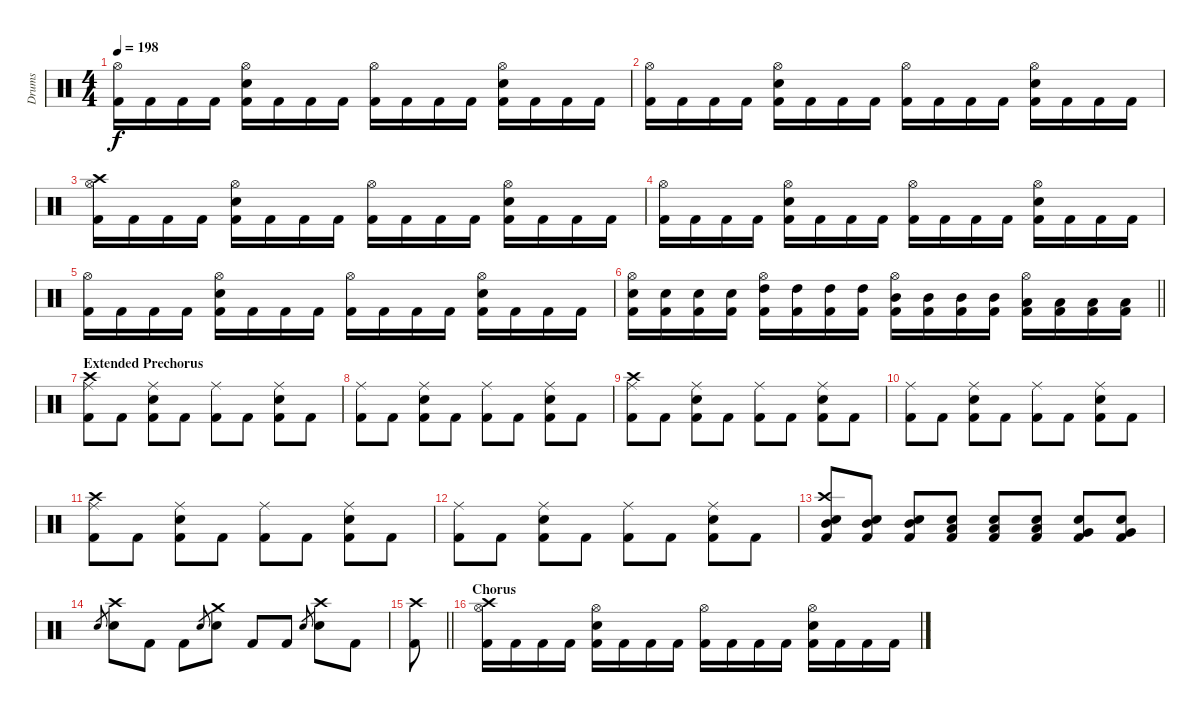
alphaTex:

\track ("Drums" "Drums") {instrument percussion}
\staff {score}
\articulation defaults
\ts (4 4)
\tempo 198
\clef neutral
\ks c
("Hi-Hat (open)" "Kick (hit) 2").16{dy f} "Kick (hit) 2".16 "Kick (hit) 2".16 "Kick (hit) 2".16 ("Hi-Hat (open)" "Snare (hit) 2" "Kick (hit) 2").16 "Kick (hit) 2".16 "Kick (hit) 2".16 "Kick (hit) 2".16 ("Hi-Hat (open)" "Kick (hit) 2").16 "Kick (hit) 2".16 "Kick (hit) 2".16 "Kick (hit) 2".16 ("Hi-Hat (open)" "Snare (hit) 2" "Kick (hit) 2").16 "Kick (hit) 2".16 "Kick (hit) 2".16 "Kick (hit) 2".16 |
("Hi-Hat (open)" "Kick (hit) 2").16 "Kick (hit) 2".16 "Kick (hit) 2".16 "Kick (hit) 2".16 ("Hi-Hat (open)" "Snare (hit) 2" "Kick (hit) 2").16 "Kick (hit) 2".16 "Kick (hit) 2".16 "Kick (hit) 2".16 ("Hi-Hat (open)" "Kick (hit) 2").16 "Kick (hit) 2".16 "Kick (hit) 2".16 "Kick (hit) 2".16 ("Hi-Hat (open)" "Snare (hit) 2" "Kick (hit) 2").16 "Kick (hit) 2".16 "Kick (hit) 2".16 "Kick (hit) 2".16 |
("Crash high (hit)" "Hi-Hat (open)" "Kick (hit) 2").16 "Kick (hit) 2".16 "Kick (hit) 2".16 "Kick (hit) 2".16 ("Hi-Hat (open)" "Snare (hit) 2" "Kick (hit) 2").16 "Kick (hit) 2".16 "Kick (hit) 2".16 "Kick (hit) 2".16 ("Hi-Hat (open)" "Kick (hit) 2").16 "Kick (hit) 2".16 "Kick (hit) 2".16 "Kick (hit) 2".16 ("Hi-Hat (open)" "Snare (hit) 2" "Kick (hit) 2").16 "Kick (hit) 2".16 "Kick (hit) 2".16 "Kick (hit) 2".16 |
("Hi-Hat (open)" "Kick (hit) 2").16 "Kick (hit) 2".16 "Kick (hit) 2".16 "Kick (hit) 2".16 ("Hi-Hat (open)" "Snare (hit) 2" "Kick (hit) 2").16 "Kick (hit) 2".16 "Kick (hit) 2".16 "Kick (hit) 2".16 ("Hi-Hat (open)" "Kick (hit) 2").16 "Kick (hit) 2".16 "Kick (hit) 2".16 "Kick (hit) 2".16 ("Hi-Hat (open)" "Snare (hit) 2" "Kick (hit) 2").16 "Kick (hit) 2".16 "Kick (hit) 2".16 "Kick (hit) 2".16 |
("Hi-Hat (open)" "Kick (hit) 2").16 "Kick (hit) 2".16 "Kick (hit) 2".16 "Kick (hit) 2".16 ("Hi-Hat (open)" "Snare (hit) 2" "Kick (hit) 2").16 "Kick (hit) 2".16 "Kick (hit) 2".16 "Kick (hit) 2".16 ("Hi-Hat (open)" "Kick (hit) 2").16 "Kick (hit) 2".16 "Kick (hit) 2".16 "Kick (hit) 2".16 ("Hi-Hat (open)" "Snare (hit) 2" "Kick (hit) 2").16 "Kick (hit) 2".16 "Kick (hit) 2".16 "Kick (hit) 2".16 |
\barLineRight lightlight
("Hi-Hat (open)" "Snare (hit) 2" "Kick (hit) 2").16 ("Snare (hit) 2" "Kick (hit) 2").16 ("Snare (hit) 2" "Kick (hit) 2").16 ("Snare (hit) 2" "Kick (hit) 2").16 ("Hi-Hat (open)" "High Tom (hit)" "Kick (hit) 2").16 ("High Tom (hit)" "Kick (hit) 2").16 ("High Tom (hit)" "Kick (hit) 2").16 ("High Tom (hit)" "Kick (hit) 2").16 ("Hi-Hat (open)" "Mid Tom (hit)" "Kick (hit) 2").16 ("Mid Tom (hit)" "Kick (hit) 2").16 ("Mid Tom (hit)" "Kick (hit) 2").16 ("Mid Tom (hit)" "Kick (hit) 2").16 ("Hi-Hat (open)" "Low Tom (hit)" "Kick (hit) 2").16 ("Low Tom (hit)" "Kick (hit) 2").16 ("Low Tom (hit)" "Kick (hit) 2").16 ("Low Tom (hit)" "Kick (hit) 2").16 |
\section ("" "Extended Prechorus")
("Crash high (hit)" "Ride (middle)" "Kick (hit) 2").8 "Kick (hit) 2".8 ("Ride (middle)" "Snare (hit) 2" "Kick (hit) 2").8 "Kick (hit) 2".8 ("Ride (middle)" "Kick (hit) 2").8 "Kick (hit) 2".8 ("Ride (middle)" "Snare (hit) 2" "Kick (hit) 2").8 "Kick (hit) 2".8 |
("Ride (middle)" "Kick (hit) 2").8 "Kick (hit) 2".8 ("Ride (middle)" "Snare (hit) 2" "Kick (hit) 2").8 "Kick (hit) 2".8 ("Ride (middle)" "Kick (hit) 2").8 "Kick (hit) 2".8 ("Ride (middle)" "Snare (hit) 2" "Kick (hit) 2").8 "Kick (hit) 2".8 |
("Crash high (hit)" "Ride (middle)" "Kick (hit) 2").8 "Kick (hit) 2".8 ("Ride (middle)" "Snare (hit) 2" "Kick (hit) 2").8 "Kick (hit) 2".8 ("Ride (middle)" "Kick (hit) 2").8 "Kick (hit) 2".8 ("Ride (middle)" "Snare (hit) 2" "Kick (hit) 2").8 "Kick (hit) 2".8 |
("Ride (middle)" "Kick (hit) 2").8 "Kick (hit) 2".8 ("Ride (middle)" "Snare (hit) 2" "Kick (hit) 2").8 "Kick (hit) 2".8 ("Ride (middle)" "Kick (hit) 2").8 "Kick (hit) 2".8 ("Ride (middle)" "Snare (hit) 2" "Kick (hit) 2").8 "Kick (hit) 2".8 |
("Crash high (hit)" "Ride (middle)" "Kick (hit) 2").8 "Kick (hit) 2".8 ("Ride (middle)" "Snare (hit) 2" "Kick (hit) 2").8 "Kick (hit) 2".8 ("Ride (middle)" "Kick (hit) 2").8 "Kick (hit) 2".8 ("Ride (middle)" "Snare (hit) 2" "Kick (hit) 2").8 "Kick (hit) 2".8 |
("Ride (middle)" "Kick (hit) 2").8 "Kick (hit) 2".8 ("Ride (middle)" "Snare (hit) 2" "Kick (hit) 2").8 "Kick (hit) 2".8 ("Ride (middle)" "Kick (hit) 2").8 "Kick (hit) 2".8 ("Ride (middle)" "Snare (hit) 2" "Kick (hit) 2").8 "Kick (hit) 2".8 |
("Crash high (hit)" "Mid Tom (hit)" "Snare (hit) 2" "Kick (hit) 2").8 ("Mid Tom (hit)" "Snare (hit) 2" "Kick (hit) 2").8 ("Mid Tom (hit)" "Snare (hit) 2" "Kick (hit) 2").8 ("Low Tom (hit)" "Snare (hit) 2" "Kick (hit) 2").8 ("Low Tom (hit)" "Snare (hit) 2" "Kick (hit) 2").8 ("Low Tom (hit)" "Snare (hit) 2" "Kick (hit) 2").8 ("Very Low Tom (hit)" "Snare (hit) 2" "Kick (hit) 2").8 ("Very Low Tom (hit)" "Snare (hit) 2" "Kick (hit) 2").8 |
"Snare (hit) 2".8{gr} ("Crash high (hit)" "Snare (hit) 2").8 "Kick (hit) 2".8 "Kick (hit) 2".8 "Snare (hit) 2".8{gr} ("Crash medium (hit)" "Snare (hit) 2").8 "Kick (hit) 2".8 "Kick (hit) 2".8 "Snare (hit) 2".8{gr} ("Crash high (hit)" "Snare (hit) 2").8 "Kick (hit) 2".8 |
\barLineRight lightlight
("Crash high (hit)" "Kick (hit) 2").8 |
\section ("" "Chorus")
("Crash high (hit)" "Hi-Hat (open)" "Kick (hit) 2").16 "Kick (hit) 2".16 "Kick (hit) 2".16 "Kick (hit) 2".16 ("Hi-Hat (open)" "Snare (hit) 2" "Kick (hit) 2").16 "Kick (hit) 2".16 "Kick (hit) 2".16 "Kick (hit) 2".16 ("Hi-Hat (open)" "Kick (hit) 2").16 "Kick (hit) 2".16 "Kick (hit) 2".16 "Kick (hit) 2".16 ("Hi-Hat (open)" "Snare (hit) 2" "Kick (hit) 2").16 "Kick (hit) 2".16 "Kick (hit) 2".16 "Kick (hit) 2".16
